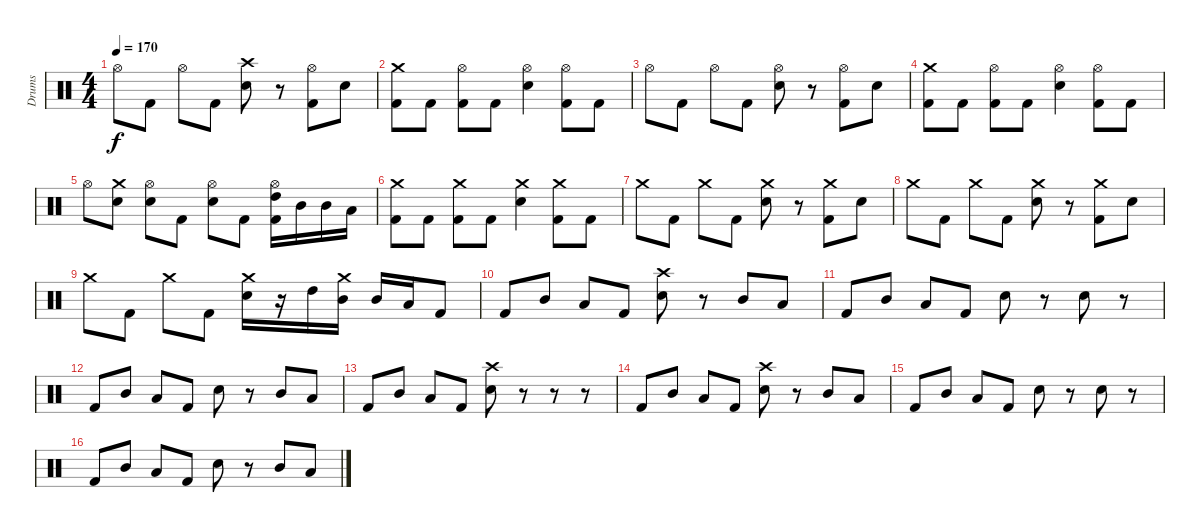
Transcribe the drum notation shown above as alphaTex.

\track ("Drums" "Drums") {instrument percussion}
\staff {score}
\articulation defaults
\ts (4 4)
\tempo 170
\clef neutral
\ks c "Hi-Hat (open)".8{dy f} "Kick (hit) 2".8 "Hi-Hat (open)".8 "Kick (hit) 2".8
("Crash high (hit)" "Snare (hit) 2").8 r.8 ("Hi-Hat (open)" "Kick (hit) 2").8 "Snare (hit) 2".8 |
("Crash medium (hit)" "Kick (hit) 2").8 "Kick (hit) 2".8 ("Hi-Hat (open)" "Kick (hit) 2").8 "Kick (hit) 2".8 ("Hi-Hat (open)" "Snare (hit) 2").4 ("Hi-Hat (open)" "Kick (hit) 2").8 "Kick (hit) 2".8 |
"Hi-Hat (open)".8 "Kick (hit) 2".8 "Hi-Hat (open)".8 "Kick (hit) 2".8 ("Hi-Hat (open)" "Snare (hit) 2").8 r.8 ("Hi-Hat (open)" "Kick (hit) 2").8 "Snare (hit) 2".8 |
("Crash medium (hit)" "Kick (hit) 2").8 "Kick (hit) 2".8 ("Hi-Hat (open)" "Kick (hit) 2").8 "Kick (hit) 2".8 ("Hi-Hat (open)" "Snare (hit) 2").4 ("Hi-Hat (open)" "Kick (hit) 2").8 "Kick (hit) 2".8 |
"Hi-Hat (open)".8 ("Crash medium (hit)" "Snare (hit) 2").8 ("Hi-Hat (open)" "Snare (hit) 2").8 "Kick (hit) 2".8 ("Hi-Hat (open)" "Snare (hit) 2").8 "Kick (hit) 2".8 ("Hi-Hat (open)" "High Tom (hit)" "Kick (hit) 2").16 "Mid Tom (hit)".16 "Mid Tom (hit)".16 "Low Tom (hit)".16 |
("Crash medium (hit)" "Kick (hit) 2").8 "Kick (hit) 2".8 ("Crash medium (hit)" "Kick (hit) 2").8 "Kick (hit) 2".8 ("Crash medium (hit)" "Snare (hit) 2").4 ("Crash medium (hit)" "Kick (hit) 2").8 "Kick (hit) 2".8 |
"Crash medium (hit)".8 "Kick (hit) 2".8 "Crash medium (hit)".8 "Kick (hit) 2".8 ("Crash medium (hit)" "Snare (hit) 2").8 r.8 ("Crash medium (hit)" "Kick (hit) 2").8 "Snare (hit) 2".8 |
"Crash medium (hit)".8 "Kick (hit) 2".8 "Crash medium (hit)".8 "Kick (hit) 2".8 ("Crash medium (hit)" "Snare (hit) 2").8 r.8 ("Crash medium (hit)" "Kick (hit) 2").8 "Snare (hit) 2".8 |
"Crash medium (hit)".8 "Kick (hit) 2".8 "Crash medium (hit)".8 "Kick (hit) 2".8 ("Crash medium (hit)" "Snare (hit) 2").16 r.16 "High Tom (hit)".16 ("Crash medium (hit)" "Mid Tom (hit)").16 "Mid Tom (hit)".16 "Low Tom (hit)".16 "Kick (hit) 2".8 |
"Kick (hit) 2".8 "Mid Tom (hit)".8 "Low Tom (hit)".8 "Kick (hit) 2".8 ("Crash high (hit)" "Snare (hit) 2").8 r.8 "Mid Tom (hit)".8 "Low Tom (hit)".8 |
"Kick (hit) 2".8 "Mid Tom (hit)".8 "Low Tom (hit)".8 "Kick (hit) 2".8 "Snare (hit) 2".8 r.8 "Snare (hit) 2".8 r.8 |
"Kick (hit) 2".8 "Mid Tom (hit)".8 "Low Tom (hit)".8 "Kick (hit) 2".8 "Snare (hit) 2".8 r.8 "Mid Tom (hit)".8 "Low Tom (hit)".8 |
"Kick (hit) 2".8 "Mid Tom (hit)".8 "Low Tom (hit)".8 "Kick (hit) 2".8 ("Crash high (hit)" "Snare (hit) 2").8 r.8 r.8 r.8 |
"Kick (hit) 2".8 "Mid Tom (hit)".8 "Low Tom (hit)".8 "Kick (hit) 2".8 ("Crash high (hit)" "Snare (hit) 2").8 r.8 "Mid Tom (hit)".8 "Low Tom (hit)".8 |
"Kick (hit) 2".8 "Mid Tom (hit)".8 "Low Tom (hit)".8 "Kick (hit) 2".8 "Snare (hit) 2".8 r.8 "Snare (hit) 2".8 r.8 |
"Kick (hit) 2".8 "Mid Tom (hit)".8 "Low Tom (hit)".8 "Kick (hit) 2".8 "Snare (hit) 2".8 r.8 "Mid Tom (hit)".8 "Low Tom (hit)".8
